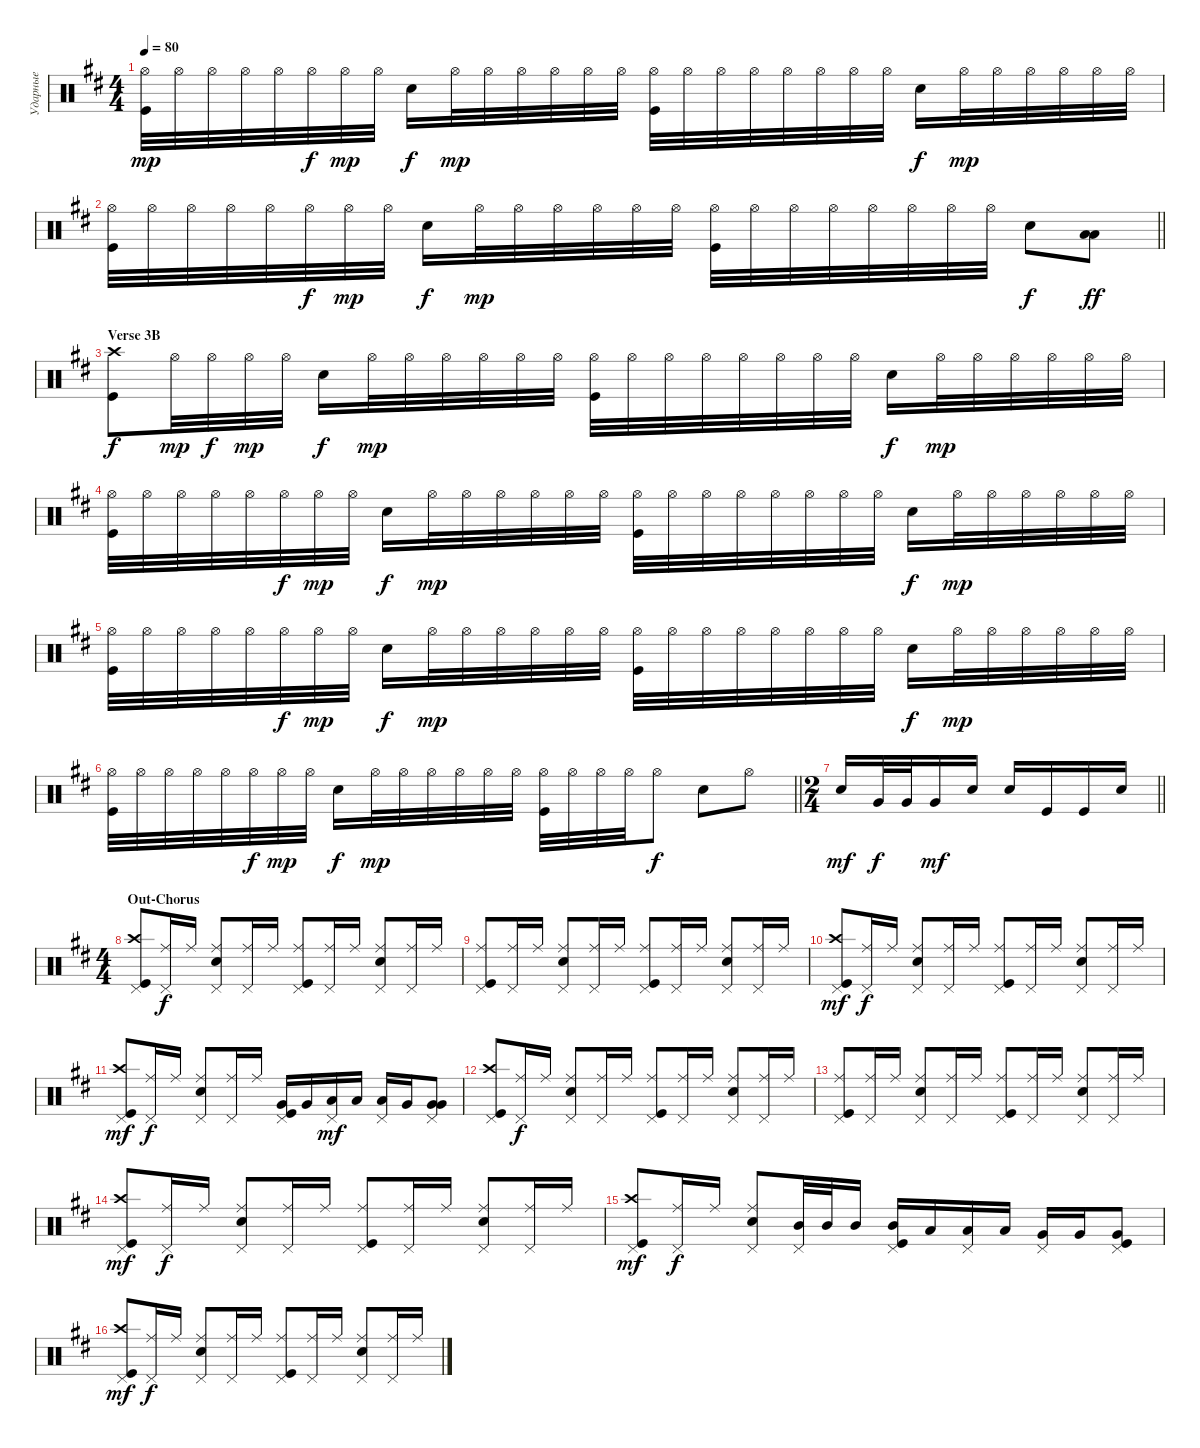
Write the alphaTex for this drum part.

\track ("Ударные" "Ударные") {instrument percussion}
\staff {score}
\articulation defaults
\ts (4 4)
\tempo 80
\clef neutral
\ks bminor
("Kick (hit)" "Hi-Hat (open)").32{dy mp} "Hi-Hat (open)".32 "Hi-Hat (open)".32 "Hi-Hat (open)".32 "Hi-Hat (open)".32 "Hi-Hat (open)".32{dy f} "Hi-Hat (open)".32{dy mp} "Hi-Hat (open)".32 "Snare (hit) 2".16{dy f} "Hi-Hat (open)".32{dy mp} "Hi-Hat (open)".32 "Hi-Hat (open)".32 "Hi-Hat (open)".32 "Hi-Hat (open)".32 "Hi-Hat (open)".32 ("Kick (hit)" "Hi-Hat (open)").32 "Hi-Hat (open)".32 "Hi-Hat (open)".32 "Hi-Hat (open)".32 "Hi-Hat (open)".32 "Hi-Hat (open)".32 "Hi-Hat (open)".32 "Hi-Hat (open)".32 "Snare (hit) 2".16{dy f} "Hi-Hat (open)".32{dy mp} "Hi-Hat (open)".32 "Hi-Hat (open)".32 "Hi-Hat (open)".32 "Hi-Hat (open)".32 "Hi-Hat (open)".32 |
\barLineRight lightlight
("Kick (hit)" "Hi-Hat (open)").32 "Hi-Hat (open)".32 "Hi-Hat (open)".32 "Hi-Hat (open)".32 "Hi-Hat (open)".32 "Hi-Hat (open)".32{dy f} "Hi-Hat (open)".32{dy mp} "Hi-Hat (open)".32 "Snare (hit) 2".16{dy f} "Hi-Hat (open)".32{dy mp} "Hi-Hat (open)".32 "Hi-Hat (open)".32 "Hi-Hat (open)".32 "Hi-Hat (open)".32 "Hi-Hat (open)".32 ("Kick (hit)" "Hi-Hat (open)").32 "Hi-Hat (open)".32 "Hi-Hat (open)".32 "Hi-Hat (open)".32 "Hi-Hat (open)".32 "Hi-Hat (open)".32 "Hi-Hat (open)".32 "Hi-Hat (open)".32 "Snare (hit) 2".8{dy f} ("Low Tom (hit)" "Low Tom (hit)").8{bd 480 dy ff} |
\section ("" "Verse 3B")
("Kick (hit)" "Crash high (hit)").8{dy f} "Hi-Hat (open)".32{dy mp} "Hi-Hat (open)".32{dy f} "Hi-Hat (open)".32{dy mp} "Hi-Hat (open)".32 "Snare (hit) 2".16{dy f} "Hi-Hat (open)".32{dy mp} "Hi-Hat (open)".32 "Hi-Hat (open)".32 "Hi-Hat (open)".32 "Hi-Hat (open)".32 "Hi-Hat (open)".32 ("Kick (hit)" "Hi-Hat (open)").32 "Hi-Hat (open)".32 "Hi-Hat (open)".32 "Hi-Hat (open)".32 "Hi-Hat (open)".32 "Hi-Hat (open)".32 "Hi-Hat (open)".32 "Hi-Hat (open)".32 "Snare (hit) 2".16{dy f} "Hi-Hat (open)".32{dy mp} "Hi-Hat (open)".32 "Hi-Hat (open)".32 "Hi-Hat (open)".32 "Hi-Hat (open)".32 "Hi-Hat (open)".32 |
("Kick (hit)" "Hi-Hat (open)").32 "Hi-Hat (open)".32 "Hi-Hat (open)".32 "Hi-Hat (open)".32 "Hi-Hat (open)".32 "Hi-Hat (open)".32{dy f} "Hi-Hat (open)".32{dy mp} "Hi-Hat (open)".32 "Snare (hit) 2".16{dy f} "Hi-Hat (open)".32{dy mp} "Hi-Hat (open)".32 "Hi-Hat (open)".32 "Hi-Hat (open)".32 "Hi-Hat (open)".32 "Hi-Hat (open)".32 ("Kick (hit)" "Hi-Hat (open)").32 "Hi-Hat (open)".32 "Hi-Hat (open)".32 "Hi-Hat (open)".32 "Hi-Hat (open)".32 "Hi-Hat (open)".32 "Hi-Hat (open)".32 "Hi-Hat (open)".32 "Snare (hit) 2".16{dy f} "Hi-Hat (open)".32{dy mp} "Hi-Hat (open)".32 "Hi-Hat (open)".32 "Hi-Hat (open)".32 "Hi-Hat (open)".32 "Hi-Hat (open)".32 |
("Kick (hit)" "Hi-Hat (open)").32 "Hi-Hat (open)".32 "Hi-Hat (open)".32 "Hi-Hat (open)".32 "Hi-Hat (open)".32 "Hi-Hat (open)".32{dy f} "Hi-Hat (open)".32{dy mp} "Hi-Hat (open)".32 "Snare (hit) 2".16{dy f} "Hi-Hat (open)".32{dy mp} "Hi-Hat (open)".32 "Hi-Hat (open)".32 "Hi-Hat (open)".32 "Hi-Hat (open)".32 "Hi-Hat (open)".32 ("Kick (hit)" "Hi-Hat (open)").32 "Hi-Hat (open)".32 "Hi-Hat (open)".32 "Hi-Hat (open)".32 "Hi-Hat (open)".32 "Hi-Hat (open)".32 "Hi-Hat (open)".32 "Hi-Hat (open)".32 "Snare (hit) 2".16{dy f} "Hi-Hat (open)".32{dy mp} "Hi-Hat (open)".32 "Hi-Hat (open)".32 "Hi-Hat (open)".32 "Hi-Hat (open)".32 "Hi-Hat (open)".32 |
\barLineRight lightlight
("Kick (hit)" "Hi-Hat (open)").32 "Hi-Hat (open)".32 "Hi-Hat (open)".32 "Hi-Hat (open)".32 "Hi-Hat (open)".32 "Hi-Hat (open)".32{dy f} "Hi-Hat (open)".32{dy mp} "Hi-Hat (open)".32 "Snare (hit) 2".16{dy f} "Hi-Hat (open)".32{dy mp} "Hi-Hat (open)".32 "Hi-Hat (open)".32 "Hi-Hat (open)".32 "Hi-Hat (open)".32 "Hi-Hat (open)".32 ("Kick (hit)" "Hi-Hat (open)").32 "Hi-Hat (open)".32 "Hi-Hat (open)".32 "Hi-Hat (open)".32 "Hi-Hat (open)".8{dy f} "Snare (hit) 2".8 "Hi-Hat (open)".8 |
\ts (2 4)
\barLineRight lightlight "Snare (hit) 2".16{dy mf} "Very Low Tom (hit)".32{dy f} "Very Low Tom (hit)".32 "Very Low Tom (hit)".16{dy mf} "Snare (hit) 2".16 "Snare (hit) 2".16 "Kick (hit)".16 "Kick (hit)".16 "Snare (hit) 2".16
|
\ts (4 4)
\section ("" "Out-Chorus")
("Crash high (hit)" "Kick (hit)" "Pedal Hi-Hat (hit)").8 ("Ride (middle)" "Pedal Hi-Hat (hit)").16{dy f} "Ride (middle)".16 ("Snare (hit) 2" "Ride (middle)" "Pedal Hi-Hat (hit)").8 ("Ride (middle)" "Pedal Hi-Hat (hit)").16 "Ride (middle)".16 ("Kick (hit)" "Ride (middle)" "Pedal Hi-Hat (hit)").8 ("Ride (middle)" "Pedal Hi-Hat (hit)").16 "Ride (middle)".16 ("Snare (hit) 2" "Ride (middle)" "Pedal Hi-Hat (hit)").8 ("Ride (middle)" "Pedal Hi-Hat (hit)").16 "Ride (middle)".16 |
("Ride (middle)" "Kick (hit)" "Pedal Hi-Hat (hit)").8 ("Ride (middle)" "Pedal Hi-Hat (hit)").16 "Ride (middle)".16 ("Snare (hit) 2" "Ride (middle)" "Pedal Hi-Hat (hit)").8 ("Ride (middle)" "Pedal Hi-Hat (hit)").16 "Ride (middle)".16 ("Kick (hit)" "Ride (middle)" "Pedal Hi-Hat (hit)").8 ("Ride (middle)" "Pedal Hi-Hat (hit)").16 "Ride (middle)".16 ("Snare (hit) 2" "Ride (middle)" "Pedal Hi-Hat (hit)").8 ("Ride (middle)" "Pedal Hi-Hat (hit)").16 "Ride (middle)".16 |
("Crash high (hit)" "Kick (hit)" "Pedal Hi-Hat (hit)").8{dy mf} ("Ride (middle)" "Pedal Hi-Hat (hit)").16{dy f} "Ride (middle)".16 ("Snare (hit) 2" "Ride (middle)" "Pedal Hi-Hat (hit)").8 ("Ride (middle)" "Pedal Hi-Hat (hit)").16 "Ride (middle)".16 ("Kick (hit)" "Ride (middle)" "Pedal Hi-Hat (hit)").8 ("Ride (middle)" "Pedal Hi-Hat (hit)").16 "Ride (middle)".16 ("Snare (hit) 2" "Ride (middle)" "Pedal Hi-Hat (hit)").8 ("Ride (middle)" "Pedal Hi-Hat (hit)").16 "Ride (middle)".16 |
("Crash high (hit)" "Kick (hit)" "Pedal Hi-Hat (hit)").8{dy mf} ("Ride (middle)" "Pedal Hi-Hat (hit)").16{dy f} "Ride (middle)".16 ("Snare (hit) 2" "Ride (middle)" "Pedal Hi-Hat (hit)").8 ("Ride (middle)" "Pedal Hi-Hat (hit)").16 "Ride (middle)".16 ("Kick (hit)" "Very Low Tom (hit)" "Pedal Hi-Hat (hit)").16 "Very Low Tom (hit)".16 ("Low Tom (hit)" "Pedal Hi-Hat (hit)").16{dy mf} "Low Tom (hit)".16 ("Low Tom (hit)" "Pedal Hi-Hat (hit)").16 "Very Low Tom (hit)".16 ("Very Low Tom (hit)" "Very Low Tom (hit)" "Pedal Hi-Hat (hit)").8{bd 120} |
("Crash high (hit)" "Kick (hit)" "Pedal Hi-Hat (hit)").8 ("Ride (middle)" "Pedal Hi-Hat (hit)").16{dy f} "Ride (middle)".16 ("Snare (hit) 2" "Ride (middle)" "Pedal Hi-Hat (hit)").8 ("Ride (middle)" "Pedal Hi-Hat (hit)").16 "Ride (middle)".16 ("Kick (hit)" "Ride (middle)" "Pedal Hi-Hat (hit)").8 ("Ride (middle)" "Pedal Hi-Hat (hit)").16 "Ride (middle)".16 ("Snare (hit) 2" "Ride (middle)" "Pedal Hi-Hat (hit)").8 ("Ride (middle)" "Pedal Hi-Hat (hit)").16 "Ride (middle)".16 |
("Ride (middle)" "Kick (hit)" "Pedal Hi-Hat (hit)").8 ("Ride (middle)" "Pedal Hi-Hat (hit)").16 "Ride (middle)".16 ("Snare (hit) 2" "Ride (middle)" "Pedal Hi-Hat (hit)").8 ("Ride (middle)" "Pedal Hi-Hat (hit)").16 "Ride (middle)".16 ("Kick (hit)" "Ride (middle)" "Pedal Hi-Hat (hit)").8 ("Ride (middle)" "Pedal Hi-Hat (hit)").16 "Ride (middle)".16 ("Snare (hit) 2" "Ride (middle)" "Pedal Hi-Hat (hit)").8 ("Ride (middle)" "Pedal Hi-Hat (hit)").16 "Ride (middle)".16 |
("Crash high (hit)" "Kick (hit)" "Pedal Hi-Hat (hit)").8{dy mf} ("Ride (middle)" "Pedal Hi-Hat (hit)").16{dy f} "Ride (middle)".16 ("Snare (hit) 2" "Ride (middle)" "Pedal Hi-Hat (hit)").8 ("Ride (middle)" "Pedal Hi-Hat (hit)").16 "Ride (middle)".16 ("Kick (hit)" "Ride (middle)" "Pedal Hi-Hat (hit)").8 ("Ride (middle)" "Pedal Hi-Hat (hit)").16 "Ride (middle)".16 ("Snare (hit) 2" "Ride (middle)" "Pedal Hi-Hat (hit)").8 ("Ride (middle)" "Pedal Hi-Hat (hit)").16 "Ride (middle)".16 |
("Crash high (hit)" "Kick (hit)" "Pedal Hi-Hat (hit)").8{dy mf} ("Ride (middle)" "Pedal Hi-Hat (hit)").16{dy f} "Ride (middle)".16 ("Snare (hit) 2" "Ride (middle)" "Pedal Hi-Hat (hit)").8 ("Pedal Hi-Hat (hit)" "Mid Tom (hit)").32 "Mid Tom (hit)".32 "Mid Tom (hit)".16 ("Pedal Hi-Hat (hit)" "Kick (hit)" "Mid Tom (hit)").16 "Low Tom (hit)".16 ("Pedal Hi-Hat (hit)" "Low Tom (hit)").16{bd 120} "Low Tom (hit)".16 ("Pedal Hi-Hat (hit)" "Very Low Tom (hit)").16 "Very Low Tom (hit)".16 ("Pedal Hi-Hat (hit)" "Very Low Tom (hit)" "Kick (hit)").8{bd 120} |
("Crash high (hit)" "Kick (hit)" "Pedal Hi-Hat (hit)").8{dy mf} ("Ride (middle)" "Pedal Hi-Hat (hit)").16{dy f} "Ride (middle)".16 ("Snare (hit) 2" "Ride (middle)" "Pedal Hi-Hat (hit)").8 ("Ride (middle)" "Pedal Hi-Hat (hit)").16 "Ride (middle)".16 ("Kick (hit)" "Ride (middle)" "Pedal Hi-Hat (hit)").8 ("Ride (middle)" "Pedal Hi-Hat (hit)").16 "Ride (middle)".16 ("Snare (hit) 2" "Ride (middle)" "Pedal Hi-Hat (hit)").8 ("Ride (middle)" "Pedal Hi-Hat (hit)").16 "Ride (middle)".16
